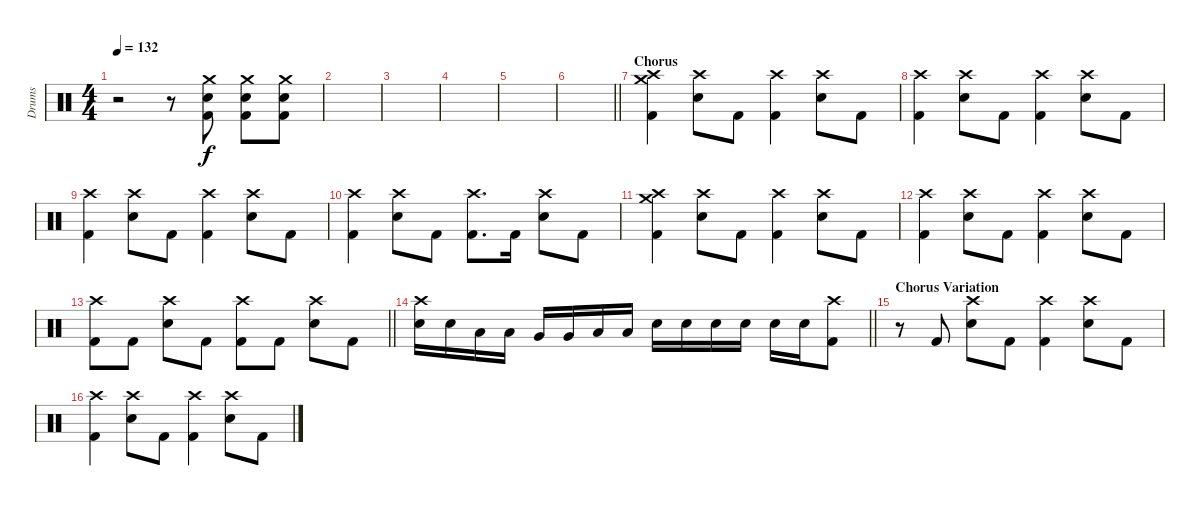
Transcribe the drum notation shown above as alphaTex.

\track ("Drums" "Drums") {instrument percussion}
\staff {score}
\articulation defaults
\ts (4 4)
\tempo 132
\clef neutral
\ks c
r.2{dy f} r.8 ("Crash medium (hit)" "Electric Snare (hit)" "Kick (hit) 2").8 ("Crash medium (hit)" "Electric Snare (hit)" "Kick (hit) 2").8 ("Crash medium (hit)" "Electric Snare (hit)" "Kick (hit) 2").8 |
|
|
|
|
\barLineRight lightlight
|
\section ("" "Chorus")
("Crash medium (hit)" "Crash high (hit)" "Kick (hit) 2").4 ("Crash high (hit)" "Electric Snare (hit)").8 "Kick (hit) 2".8 ("Crash high (hit)" "Kick (hit) 2").4 ("Crash high (hit)" "Electric Snare (hit)").8 "Kick (hit) 2".8 |
("Crash high (hit)" "Kick (hit) 2").4 ("Crash high (hit)" "Electric Snare (hit)").8 "Kick (hit) 2".8 ("Crash high (hit)" "Kick (hit) 2").4 ("Crash high (hit)" "Electric Snare (hit)").8 "Kick (hit) 2".8 |
("Crash high (hit)" "Kick (hit) 2").4 ("Crash high (hit)" "Electric Snare (hit)").8 "Kick (hit) 2".8 ("Crash high (hit)" "Kick (hit) 2").4 ("Crash high (hit)" "Electric Snare (hit)").8 "Kick (hit) 2".8 |
("Crash high (hit)" "Kick (hit) 2").4 ("Crash high (hit)" "Electric Snare (hit)").8 "Kick (hit) 2".8 ("Crash high (hit)" "Kick (hit) 2").8{d} "Kick (hit) 2".16 ("Crash high (hit)" "Electric Snare (hit)").8 "Kick (hit) 2".8 |
("Crash medium (hit)" "Crash high (hit)" "Kick (hit) 2").4 ("Crash high (hit)" "Electric Snare (hit)").8 "Kick (hit) 2".8 ("Crash high (hit)" "Kick (hit) 2").4 ("Crash high (hit)" "Electric Snare (hit)").8 "Kick (hit) 2".8 |
("Crash high (hit)" "Kick (hit) 2").4 ("Crash high (hit)" "Electric Snare (hit)").8 "Kick (hit) 2".8 ("Crash high (hit)" "Kick (hit) 2").4 ("Crash high (hit)" "Electric Snare (hit)").8 "Kick (hit) 2".8 |
\barLineRight lightlight
("Crash high (hit)" "Kick (hit) 2").8 "Kick (hit) 2".8 ("Crash high (hit)" "Electric Snare (hit)").8 "Kick (hit) 2".8 ("Crash high (hit)" "Kick (hit) 2").8 "Kick (hit) 2".8 ("Crash high (hit)" "Electric Snare (hit)").8 "Kick (hit) 2".8 |
\barLineRight lightlight
("Crash high (hit)" "Electric Snare (hit)").16 "Electric Snare (hit)".16 "Low Tom (hit)".16 "Low Tom (hit)".16 "Very Low Tom (hit)".16 "Very Low Tom (hit)".16 "Low Tom (hit)".16 "Low Tom (hit)".16 "Electric Snare (hit)".16 "Electric Snare (hit)".16 "Electric Snare (hit)".16 "Electric Snare (hit)".16 "Electric Snare (hit)".16 "Electric Snare (hit)".16 ("Crash high (hit)" "Kick (hit) 2").8 |
\section ("" "Chorus Variation")
r.8 "Kick (hit) 2".8 ("Crash high (hit)" "Electric Snare (hit)").8 "Kick (hit) 2".8 ("Crash high (hit)" "Kick (hit) 2").4 ("Crash high (hit)" "Electric Snare (hit)").8 "Kick (hit) 2".8 |
("Crash high (hit)" "Kick (hit) 2").4 ("Crash high (hit)" "Electric Snare (hit)").8 "Kick (hit) 2".8 ("Crash high (hit)" "Kick (hit) 2").4 ("Crash high (hit)" "Electric Snare (hit)").8 "Kick (hit) 2".8
